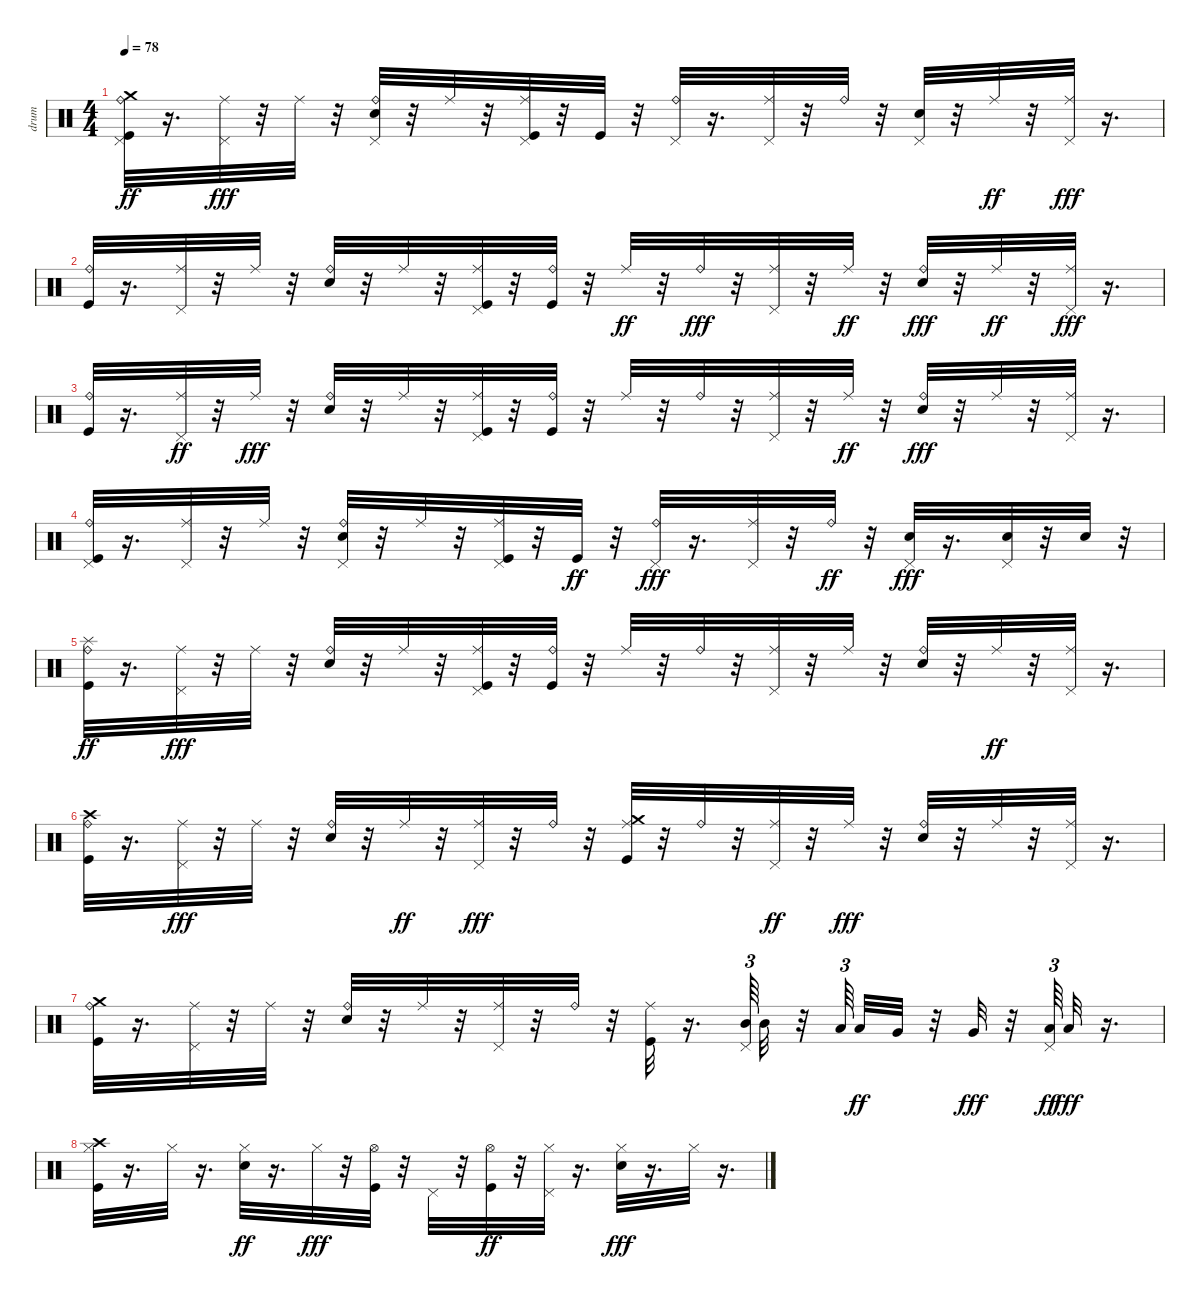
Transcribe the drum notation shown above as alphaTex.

\track ("drum" "drum") {instrument percussion}
\staff {score}
\articulation defaults
\ts (4 4)
\tempo 78
\clef neutral
\ks c
("Ride (bell)" "Pedal Hi-Hat (hit)" "Kick (hit)" "Crash medium (hit)").32{dy ff} r.16{d} ("Ride (middle)" "Pedal Hi-Hat (hit)").32{dy fff} r.32 "Ride (middle)".32 r.32 ("Ride (bell)" "Pedal Hi-Hat (hit)" "Electric Snare (hit)").32 r.32 "Ride (middle)".32 r.32 ("Ride (middle)" "Pedal Hi-Hat (hit)" "Kick (hit)").32 r.32 "Kick (hit)".32 r.32 ("Ride (bell)" "Pedal Hi-Hat (hit)").32 r.16{d} ("Ride (middle)" "Pedal Hi-Hat (hit)").32 r.32 "Ride (bell)".32 r.32 ("Pedal Hi-Hat (hit)" "Electric Snare (hit)").32 r.32 "Ride (middle)".32{dy ff} r.32 ("Ride (middle)" "Pedal Hi-Hat (hit)").32{dy fff} r.16{d} |
("Ride (bell)" "Kick (hit)").32 r.16{d} ("Ride (middle)" "Pedal Hi-Hat (hit)").32 r.32 "Ride (middle)".32 r.32 ("Ride (bell)" "Electric Snare (hit)").32 r.32 "Ride (middle)".32 r.32 ("Ride (middle)" "Pedal Hi-Hat (hit)" "Kick (hit)").32 r.32 ("Ride (bell)" "Kick (hit)").32 r.32 "Ride (middle)".32{dy ff} r.32 "Ride (bell)".32{dy fff} r.32 ("Ride (middle)" "Pedal Hi-Hat (hit)").32 r.32 "Ride (middle)".32{dy ff} r.32 ("Ride (bell)" "Electric Snare (hit)").32{dy fff} r.32 "Ride (middle)".32{dy ff} r.32 ("Ride (middle)" "Pedal Hi-Hat (hit)").32{dy fff} r.16{d} |
("Ride (bell)" "Kick (hit)").32 r.16{d} ("Ride (middle)" "Pedal Hi-Hat (hit)").32{dy ff} r.32 "Ride (middle)".32{dy fff} r.32 ("Ride (bell)" "Electric Snare (hit)").32 r.32 "Ride (middle)".32 r.32 ("Ride (middle)" "Pedal Hi-Hat (hit)" "Kick (hit)").32 r.32 ("Ride (bell)" "Kick (hit)").32 r.32 "Ride (middle)".32 r.32 "Ride (bell)".32 r.32 ("Ride (middle)" "Pedal Hi-Hat (hit)").32 r.32 "Ride (middle)".32{dy ff} r.32 ("Ride (bell)" "Electric Snare (hit)").32{dy fff} r.32 "Ride (middle)".32 r.32 ("Ride (middle)" "Pedal Hi-Hat (hit)").32 r.16{d} |
("Ride (bell)" "Pedal Hi-Hat (hit)" "Kick (hit)").32 r.16{d} ("Ride (middle)" "Pedal Hi-Hat (hit)").32 r.32 "Ride (middle)".32 r.32 ("Ride (bell)" "Pedal Hi-Hat (hit)" "Electric Snare (hit)").32 r.32 "Ride (middle)".32 r.32 ("Ride (middle)" "Pedal Hi-Hat (hit)" "Kick (hit)").32 r.32 "Kick (hit)".32{dy ff} r.32 ("Ride (bell)" "Pedal Hi-Hat (hit)").32{dy fff} r.16{d} ("Ride (middle)" "Pedal Hi-Hat (hit)").32 r.32 "Ride (bell)".32{dy ff} r.32 ("Pedal Hi-Hat (hit)" "Electric Snare (hit)").32{dy fff} r.16{d} ("Pedal Hi-Hat (hit)" "Electric Snare (hit)").32 r.32 "Electric Snare (hit)".32 r.32 |
("Ride (bell)" "Kick (hit)" "Splash (hit)").32{dy ff} r.16{d} ("Ride (middle)" "Pedal Hi-Hat (hit)").32{dy fff} r.32 "Ride (middle)".32 r.32 ("Ride (bell)" "Electric Snare (hit)").32 r.32 "Ride (middle)".32 r.32 ("Ride (middle)" "Pedal Hi-Hat (hit)" "Kick (hit)").32 r.32 ("Ride (bell)" "Kick (hit)").32 r.32 "Ride (middle)".32 r.32 "Ride (bell)".32 r.32 ("Ride (middle)" "Pedal Hi-Hat (hit)").32 r.32 "Ride (middle)".32 r.32 ("Ride (bell)" "Electric Snare (hit)").32 r.32 "Ride (middle)".32{dy ff} r.32 ("Ride (middle)" "Pedal Hi-Hat (hit)").32 r.16{d} |
("Ride (bell)" "Crash high (hit)" "Kick (hit)").32 r.16{d} ("Ride (middle)" "Pedal Hi-Hat (hit)").32{dy fff} r.32 "Ride (middle)".32 r.32 ("Ride (bell)" "Electric Snare (hit)").32 r.32 "Ride (middle)".32{dy ff} r.32 ("Ride (middle)" "Pedal Hi-Hat (hit)").32{dy fff} r.32 "Ride (bell)".32 r.32 ("Ride (middle)" "Crash medium (hit)" "Kick (hit)").32 r.32 "Ride (bell)".32 r.32 ("Ride (middle)" "Pedal Hi-Hat (hit)").32{dy ff} r.32 "Ride (middle)".32{dy fff} r.32 ("Ride (bell)" "Electric Snare (hit)").32 r.32 "Ride (middle)".32 r.32 ("Ride (middle)" "Pedal Hi-Hat (hit)").32 r.16{d} |
("Ride (bell)" "Crash medium (hit)" "Kick (hit)").32 r.16{d} ("Ride (middle)" "Pedal Hi-Hat (hit)").32 r.32 "Ride (middle)".32 r.32 ("Ride (bell)" "Electric Snare (hit)").32 r.32 "Ride (middle)".32 r.32 ("Ride (middle)" "Pedal Hi-Hat (hit)").32 r.32 "Ride (bell)".32 r.32 ("Ride (middle)" "Kick (hit)").32 r.16{d} ("Pedal Hi-Hat (hit)" "Mid Tom (hit)").64{tu (3 2)} "Mid Tom (hit)".32 r.32 "Low Tom (hit)".64{tu (3 2)} "Low Tom (hit)".32{dy ff} "Very Low Tom (hit)".32 r.32 "Very Low Tom (hit)".32{dy fff} r.32 ("Pedal Hi-Hat (hit)" "Low Floor Tom (hit)").64{tu (3 2) dy ff} "Low Floor Tom (hit)".32{dy fff} r.16{d} |
("Kick (hit)" "Hi-Hat (closed)" "Crash high (hit)").32 r.16{d} "Hi-Hat (closed)".32 r.16{d} ("Electric Snare (hit)" "Hi-Hat (closed)").32{dy ff} r.16{d} "Hi-Hat (closed)".32{dy fff} r.32 ("Kick (hit)" "Hi-Hat (open)").32 r.32 "Pedal Hi-Hat (hit)".32 r.32 ("Kick (hit)" "Hi-Hat (open)").32{dy ff} r.32 ("Pedal Hi-Hat (hit)" "Hi-Hat (closed)").32 r.16{d} ("Electric Snare (hit)" "Hi-Hat (closed)").32{dy fff} r.16{d} "Hi-Hat (closed)".32 r.16{d}
